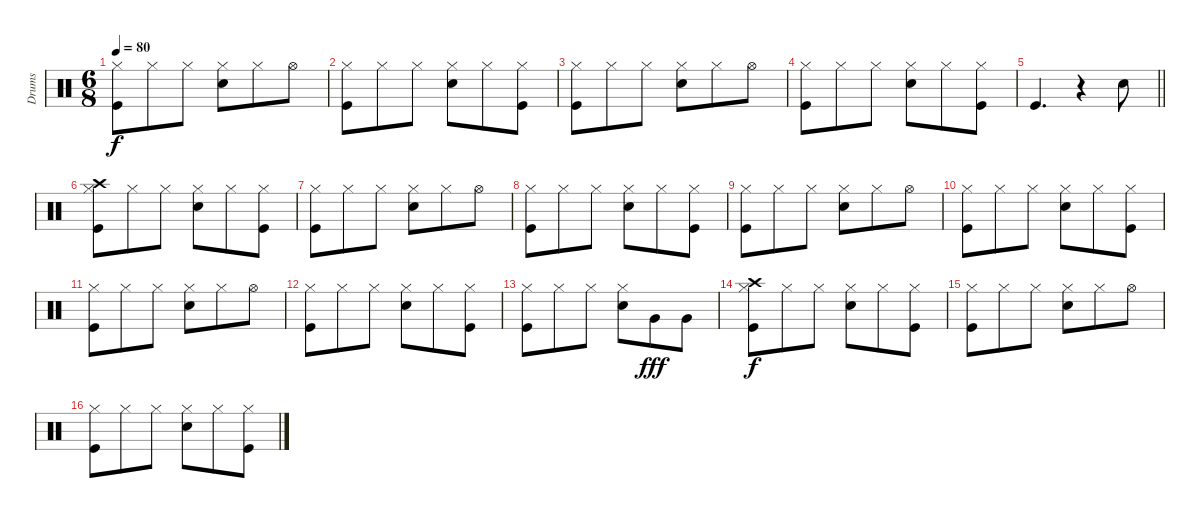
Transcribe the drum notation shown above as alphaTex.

\track ("Drums" "Drums") {instrument percussion}
\staff {score}
\articulation defaults
\ts (6 8)
\tempo 80
\clef neutral
\ks c
("Hi-Hat (closed)" "Kick (hit)").8{dy f} "Hi-Hat (closed)".8 "Hi-Hat (closed)".8 ("Hi-Hat (closed)" "Electric Snare (hit)").8 "Hi-Hat (closed)".8 "Hi-Hat (open)".8 |
("Hi-Hat (closed)" "Kick (hit)").8 "Hi-Hat (closed)".8 "Hi-Hat (closed)".8 ("Hi-Hat (closed)" "Electric Snare (hit)").8 "Hi-Hat (closed)".8 ("Hi-Hat (closed)" "Kick (hit)").8 |
("Hi-Hat (closed)" "Kick (hit)").8 "Hi-Hat (closed)".8 "Hi-Hat (closed)".8 ("Hi-Hat (closed)" "Electric Snare (hit)").8 "Hi-Hat (closed)".8 "Hi-Hat (open)".8 |
("Hi-Hat (closed)" "Kick (hit)").8 "Hi-Hat (closed)".8 "Hi-Hat (closed)".8 ("Hi-Hat (closed)" "Electric Snare (hit)").8 "Hi-Hat (closed)".8 ("Hi-Hat (closed)" "Kick (hit)").8 |
\barLineRight lightlight "Kick (hit)".4{d}
r.4 "Electric Snare (hit)".8 |
("Hi-Hat (closed)" "Kick (hit)" "Crash high (hit)").8 "Hi-Hat (closed)".8 "Hi-Hat (closed)".8 ("Hi-Hat (closed)" "Electric Snare (hit)").8 "Hi-Hat (closed)".8 ("Hi-Hat (closed)" "Kick (hit)").8 |
("Hi-Hat (closed)" "Kick (hit)").8 "Hi-Hat (closed)".8 "Hi-Hat (closed)".8 ("Hi-Hat (closed)" "Electric Snare (hit)").8 "Hi-Hat (closed)".8 "Hi-Hat (open)".8 |
("Hi-Hat (closed)" "Kick (hit)").8 "Hi-Hat (closed)".8 "Hi-Hat (closed)".8 ("Hi-Hat (closed)" "Electric Snare (hit)").8 "Hi-Hat (closed)".8 ("Hi-Hat (closed)" "Kick (hit)").8 |
("Hi-Hat (closed)" "Kick (hit)").8 "Hi-Hat (closed)".8 "Hi-Hat (closed)".8 ("Hi-Hat (closed)" "Electric Snare (hit)").8 "Hi-Hat (closed)".8 "Hi-Hat (open)".8 |
("Hi-Hat (closed)" "Kick (hit)").8 "Hi-Hat (closed)".8 "Hi-Hat (closed)".8 ("Hi-Hat (closed)" "Electric Snare (hit)").8 "Hi-Hat (closed)".8 ("Hi-Hat (closed)" "Kick (hit)").8 |
("Hi-Hat (closed)" "Kick (hit)").8 "Hi-Hat (closed)".8 "Hi-Hat (closed)".8 ("Hi-Hat (closed)" "Electric Snare (hit)").8 "Hi-Hat (closed)".8 "Hi-Hat (open)".8 |
("Hi-Hat (closed)" "Kick (hit)").8 "Hi-Hat (closed)".8 "Hi-Hat (closed)".8 ("Hi-Hat (closed)" "Electric Snare (hit)").8 "Hi-Hat (closed)".8 ("Hi-Hat (closed)" "Kick (hit)").8 |
("Hi-Hat (closed)" "Kick (hit)").8 "Hi-Hat (closed)".8 "Hi-Hat (closed)".8 ("Hi-Hat (closed)" "Electric Snare (hit)").8 "Very Low Tom (hit)".8{dy fff} "Very Low Tom (hit)".8 |
("Hi-Hat (closed)" "Kick (hit)" "Crash high (hit)").8{dy f} "Hi-Hat (closed)".8 "Hi-Hat (closed)".8 ("Hi-Hat (closed)" "Electric Snare (hit)").8 "Hi-Hat (closed)".8 ("Hi-Hat (closed)" "Kick (hit)").8 |
("Hi-Hat (closed)" "Kick (hit)").8 "Hi-Hat (closed)".8 "Hi-Hat (closed)".8 ("Hi-Hat (closed)" "Electric Snare (hit)").8 "Hi-Hat (closed)".8 "Hi-Hat (open)".8 |
("Hi-Hat (closed)" "Kick (hit)").8 "Hi-Hat (closed)".8 "Hi-Hat (closed)".8 ("Hi-Hat (closed)" "Electric Snare (hit)").8 "Hi-Hat (closed)".8 ("Hi-Hat (closed)" "Kick (hit)").8
